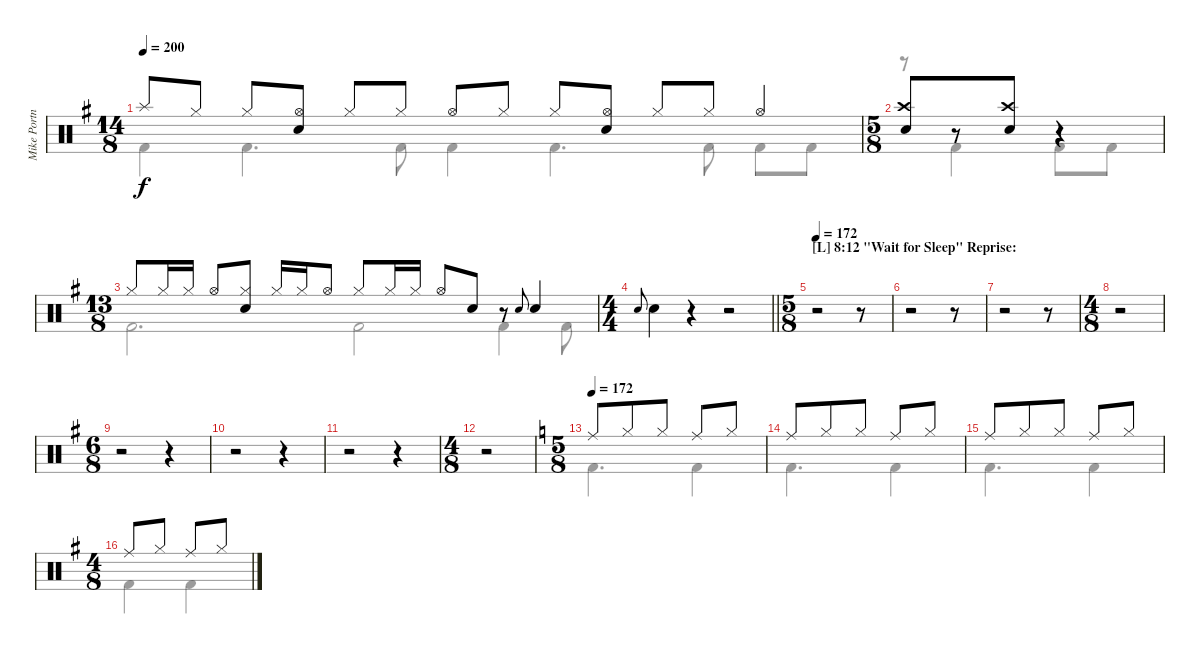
\track ("Mike Portnoy - Drum" "Mike Portn") {instrument percussion}
\staff {score}
\articulation defaults
\voice
\ts (14 8)
\tempo 200
\clef neutral
\ks g "Splash (hit)".8{dy f} "Hi-Hat (closed)".8 "Hi-Hat (closed)".8
("Hi-Hat (open)" "Electric Snare (hit)").8 "Hi-Hat (closed)".8 "Hi-Hat (closed)".8 "Hi-Hat (open)".8 "Hi-Hat (closed)".8 "Hi-Hat (closed)".8 ("Hi-Hat (open)" "Electric Snare (hit)").8 "Hi-Hat (closed)".8 "Hi-Hat (closed)".8 "Hi-Hat (open)".4 |
\ts (5 8)
("Crash high (hit)" "Electric Snare (hit)").8 r.8 ("Crash high (hit)" "Electric Snare (hit)").8 r.4 |
\ts (13 8)
"Hi-Hat (closed)".8 "Hi-Hat (closed)".16 "Hi-Hat (closed)".16 "Hi-Hat (open)".8 ("Hi-Hat (closed)" "Electric Snare (hit)").8 "Hi-Hat (closed)".16 "Hi-Hat (closed)".16 "Hi-Hat (open)".8 "Hi-Hat (closed)".8 "Hi-Hat (closed)".16 "Hi-Hat (closed)".16 "Hi-Hat (open)".8 "Electric Snare (hit)".8 r.8 "Electric Snare (hit)".8{gr onbeat} "Electric Snare (hit)".4 |
\ts (4 4)
\barLineRight lightlight "Electric Snare (hit)".8{gr onbeat} "Electric Snare (hit)".4
r.4 r.2 |
\ts (5 8)
\section ("" "[L] 8:12 \"Wait for Sleep\" Reprise:")
\tempo 172
r.2 r.8 |
r.2 r.8 |
r.2 r.8 |
\ts (4 8)
r.2 |
\ts (6 8)
r.2 r.4 |
r.2 r.4 |
r.2 r.4 |
\ts (4 8)
r.2 |
\ts (5 8)
\tempo 172
\ks c "Ride (middle)".8 "Hi-Hat (closed)".8 "Hi-Hat (closed)".8 "Ride (middle)".8 "Hi-Hat (closed)".8
|
"Ride (middle)".8 "Hi-Hat (closed)".8 "Hi-Hat (closed)".8 "Ride (middle)".8 "Hi-Hat (closed)".8 |
"Ride (middle)".8 "Hi-Hat (closed)".8 "Hi-Hat (closed)".8 "Ride (middle)".8 "Hi-Hat (closed)".8 |
\ts (4 8)
\ks g "Ride (middle)".8 "Hi-Hat (closed)".8 "Ride (middle)".8 "Hi-Hat (closed)".8
\voice
\clef neutral
\ottava regular
\simile none
\ks g "Kick (hit) 2".4{dy f} "Kick (hit) 2".4{d} "Kick (hit) 2".8 "Kick (hit) 2".4 "Kick (hit) 2".4{d} "Kick (hit) 2".8 "Kick (hit) 2".8 "Kick (hit) 2".8
|
r.8 "Kick (hit) 2".4 "Kick (hit) 2".8 "Kick (hit) 2".8 |
"Kick (hit) 2".2{d} "Kick (hit) 2".2 "Kick (hit) 2".4 "Kick (hit) 2".8 |
\barLineRight lightlight
|
|
|
|
|
|
|
|
|
\ks c "Kick (hit) 2".4{d} "Kick (hit) 2".4
|
"Kick (hit) 2".4{d} "Kick (hit) 2".4 |
"Kick (hit) 2".4{d} "Kick (hit) 2".4 |
\ks g "Kick (hit) 2".4 "Kick (hit) 2".4
